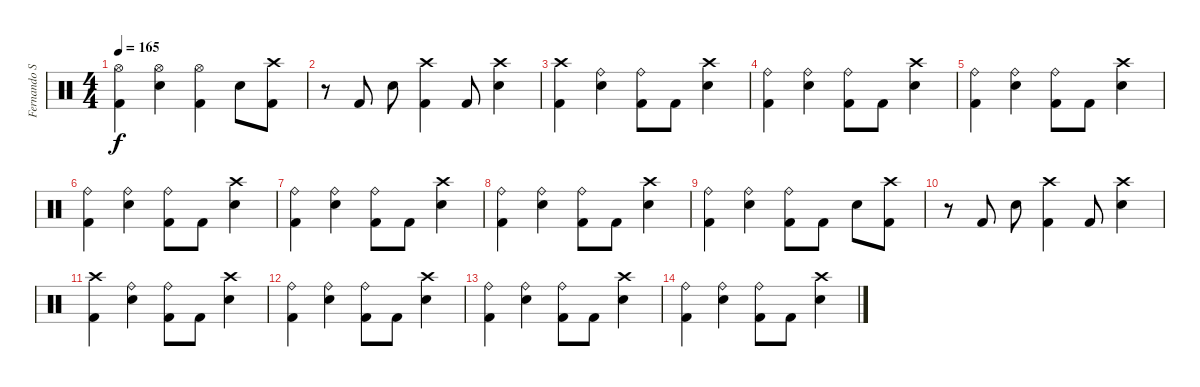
\track ("Fernando Scarcella" "Fernando S") {instrument percussion}
\staff {score}
\articulation defaults
\ts (4 4)
\tempo 165
\clef neutral
\ks c
("Hi-Hat (open)" "Kick (hit) 2").4{dy f} ("Hi-Hat (open)" "Snare (hit) 2").4 ("Hi-Hat (open)" "Kick (hit) 2").4 "Snare (hit) 2".8 ("Crash high (hit)" "Kick (hit) 2").8 |
r.8 "Kick (hit) 2".8 "Snare (hit) 2".8 ("Crash high (hit)" "Kick (hit) 2").4 "Kick (hit) 2".8 ("Crash high (hit)" "Snare (hit) 2").4 |
("Crash high (hit)" "Kick (hit) 2").4 ("Ride (bell)" "Snare (hit) 2").4 ("Ride (bell)" "Kick (hit) 2").8 "Kick (hit) 2".8 ("Crash high (hit)" "Snare (hit) 2").4 |
("Ride (bell)" "Kick (hit) 2").4 ("Ride (bell)" "Snare (hit) 2").4 ("Ride (bell)" "Kick (hit) 2").8 "Kick (hit) 2".8 ("Crash high (hit)" "Snare (hit) 2").4 |
("Ride (bell)" "Kick (hit) 2").4 ("Ride (bell)" "Snare (hit) 2").4 ("Ride (bell)" "Kick (hit) 2").8 "Kick (hit) 2".8 ("Crash high (hit)" "Snare (hit) 2").4 |
("Ride (bell)" "Kick (hit) 2").4 ("Ride (bell)" "Snare (hit) 2").4 ("Ride (bell)" "Kick (hit) 2").8 "Kick (hit) 2".8 ("Crash high (hit)" "Snare (hit) 2").4 |
("Ride (bell)" "Kick (hit) 2").4{volume 12} ("Ride (bell)" "Snare (hit) 2").4 ("Ride (bell)" "Kick (hit) 2").8 "Kick (hit) 2".8 ("Crash high (hit)" "Snare (hit) 2").4 |
("Ride (bell)" "Kick (hit) 2").4 ("Ride (bell)" "Snare (hit) 2").4 ("Ride (bell)" "Kick (hit) 2").8 "Kick (hit) 2".8 ("Crash high (hit)" "Snare (hit) 2").4 |
("Ride (bell)" "Kick (hit) 2").4{volume 8} ("Ride (bell)" "Snare (hit) 2").4 ("Ride (bell)" "Kick (hit) 2").8 "Kick (hit) 2".8 "Snare (hit) 2".8 ("Crash high (hit)" "Kick (hit) 2").8 |
r.8 "Kick (hit) 2".8 "Snare (hit) 2".8 ("Crash high (hit)" "Kick (hit) 2").4 "Kick (hit) 2".8 ("Crash high (hit)" "Snare (hit) 2").4 |
("Crash high (hit)" "Kick (hit) 2").4{volume 4} ("Ride (bell)" "Snare (hit) 2").4 ("Ride (bell)" "Kick (hit) 2").8 "Kick (hit) 2".8 ("Crash high (hit)" "Snare (hit) 2").4 |
("Ride (bell)" "Kick (hit) 2").4 ("Ride (bell)" "Snare (hit) 2").4 ("Ride (bell)" "Kick (hit) 2").8 "Kick (hit) 2".8 ("Crash high (hit)" "Snare (hit) 2").4 |
("Ride (bell)" "Kick (hit) 2").4{volume 0} ("Ride (bell)" "Snare (hit) 2").4 ("Ride (bell)" "Kick (hit) 2").8 "Kick (hit) 2".8 ("Crash high (hit)" "Snare (hit) 2").4 |
("Ride (bell)" "Kick (hit) 2").4 ("Ride (bell)" "Snare (hit) 2").4 ("Ride (bell)" "Kick (hit) 2").8 "Kick (hit) 2".8 ("Crash high (hit)" "Snare (hit) 2").4
